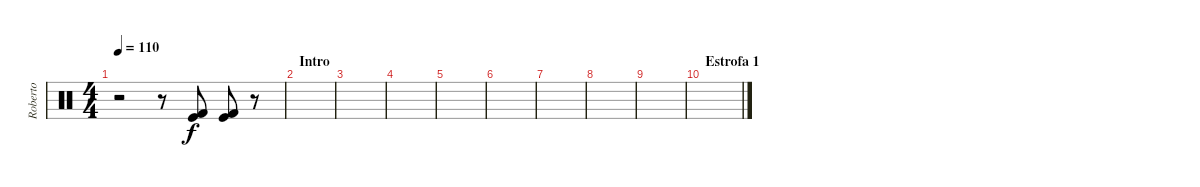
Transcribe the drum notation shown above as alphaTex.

\track ("Roberto" "Roberto") {instrument percussion}
\staff {score}
\articulation defaults
\ts (4 4)
\tempo 110
\clef neutral
\ks c
r.2{dy f} r.8 ("Kick (hit)" "Kick (hit) 2").8 ("Kick (hit)" "Kick (hit) 2").8 r.8 |
\section ("" "Intro")
|
|
|
|
|
|
|
|
\section ("" "Estrofa 1")
